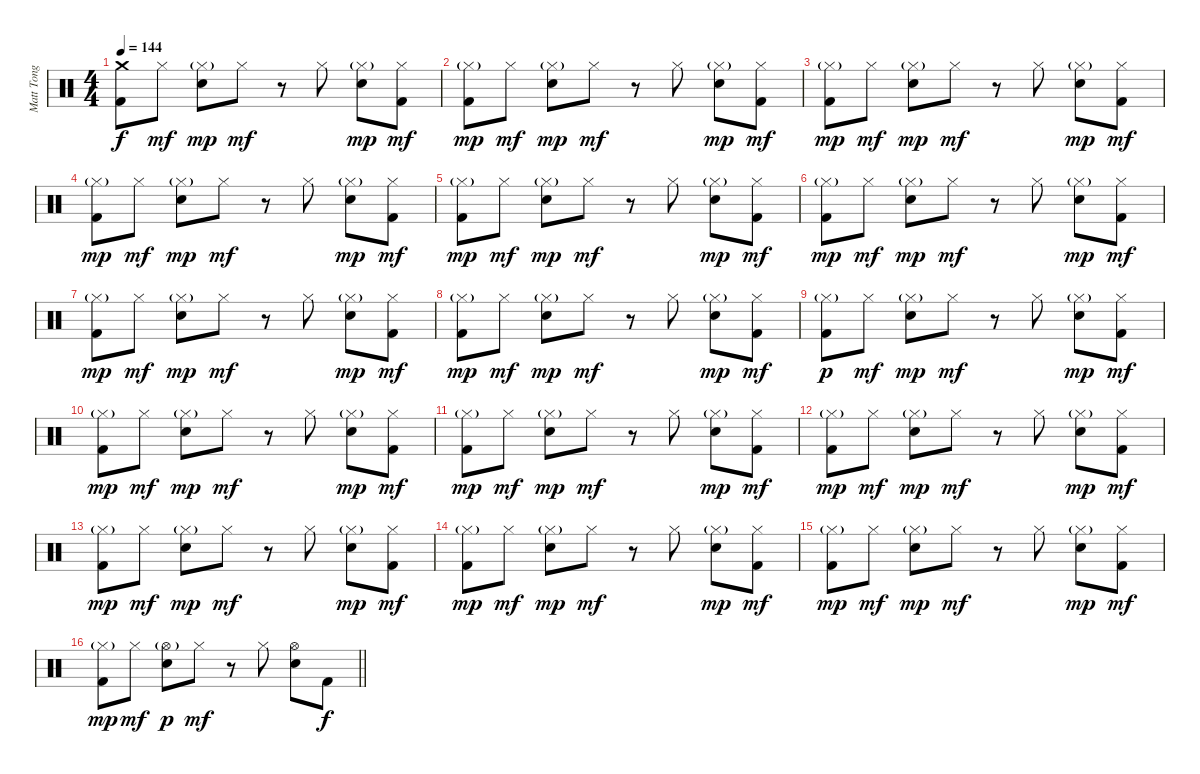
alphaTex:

\track ("Matt Tong" "Matt Tong") {instrument percussion}
\staff {score}
\articulation defaults
\ts (4 4)
\tempo 144
\clef neutral
\ks c
("Crash medium (hit)" "Kick (hit) 2").8{dy f} "Hi-Hat (closed)".8{dy mf} ("Hi-Hat (closed)"{g} "Electric Snare (hit)").8{dy mp} "Hi-Hat (closed)".8{dy mf} r.8 "Hi-Hat (closed)".8 ("Hi-Hat (closed)"{g} "Electric Snare (hit)").8{dy mp} ("Hi-Hat (closed)" "Kick (hit) 2").8{dy mf} |
("Hi-Hat (closed)"{g} "Kick (hit) 2").8{dy mp} "Hi-Hat (closed)".8{dy mf} ("Hi-Hat (closed)"{g} "Electric Snare (hit)").8{dy mp} "Hi-Hat (closed)".8{dy mf} r.8 "Hi-Hat (closed)".8 ("Hi-Hat (closed)"{g} "Electric Snare (hit)").8{dy mp} ("Hi-Hat (closed)" "Kick (hit) 2").8{dy mf} |
("Hi-Hat (closed)"{g} "Kick (hit) 2").8{dy mp} "Hi-Hat (closed)".8{dy mf} ("Hi-Hat (closed)"{g} "Electric Snare (hit)").8{dy mp} "Hi-Hat (closed)".8{dy mf} r.8 "Hi-Hat (closed)".8 ("Hi-Hat (closed)"{g} "Electric Snare (hit)").8{dy mp} ("Hi-Hat (closed)" "Kick (hit) 2").8{dy mf} |
("Hi-Hat (closed)"{g} "Kick (hit) 2").8{dy mp} "Hi-Hat (closed)".8{dy mf} ("Hi-Hat (closed)"{g} "Electric Snare (hit)").8{dy mp} "Hi-Hat (closed)".8{dy mf} r.8 "Hi-Hat (closed)".8 ("Hi-Hat (closed)"{g} "Electric Snare (hit)").8{dy mp} ("Hi-Hat (closed)" "Kick (hit) 2").8{dy mf} |
("Hi-Hat (closed)"{g} "Kick (hit) 2").8{dy mp} "Hi-Hat (closed)".8{dy mf} ("Hi-Hat (closed)"{g} "Electric Snare (hit)").8{dy mp} "Hi-Hat (closed)".8{dy mf} r.8 "Hi-Hat (closed)".8 ("Hi-Hat (closed)"{g} "Electric Snare (hit)").8{dy mp} ("Hi-Hat (closed)" "Kick (hit) 2").8{dy mf} |
("Hi-Hat (closed)"{g} "Kick (hit) 2").8{dy mp} "Hi-Hat (closed)".8{dy mf} ("Hi-Hat (closed)"{g} "Electric Snare (hit)").8{dy mp} "Hi-Hat (closed)".8{dy mf} r.8 "Hi-Hat (closed)".8 ("Hi-Hat (closed)"{g} "Electric Snare (hit)").8{dy mp} ("Hi-Hat (closed)" "Kick (hit) 2").8{dy mf} |
("Hi-Hat (closed)"{g} "Kick (hit) 2").8{dy mp} "Hi-Hat (closed)".8{dy mf} ("Hi-Hat (closed)"{g} "Electric Snare (hit)").8{dy mp} "Hi-Hat (closed)".8{dy mf} r.8 "Hi-Hat (closed)".8 ("Hi-Hat (closed)"{g} "Electric Snare (hit)").8{dy mp} ("Hi-Hat (closed)" "Kick (hit) 2").8{dy mf} |
("Hi-Hat (closed)"{g} "Kick (hit) 2").8{dy mp} "Hi-Hat (closed)".8{dy mf} ("Hi-Hat (closed)"{g} "Electric Snare (hit)").8{dy mp} "Hi-Hat (closed)".8{dy mf} r.8 "Hi-Hat (closed)".8 ("Hi-Hat (closed)"{g} "Electric Snare (hit)").8{dy mp} ("Hi-Hat (closed)" "Kick (hit) 2").8{dy mf} |
("Hi-Hat (closed)"{g} "Kick (hit) 2").8{dy p} "Hi-Hat (closed)".8{dy mf} ("Hi-Hat (closed)"{g} "Electric Snare (hit)").8{dy mp} "Hi-Hat (closed)".8{dy mf} r.8 "Hi-Hat (closed)".8 ("Hi-Hat (closed)"{g} "Electric Snare (hit)").8{dy mp} ("Hi-Hat (closed)" "Kick (hit) 2").8{dy mf} |
("Hi-Hat (closed)"{g} "Kick (hit) 2").8{dy mp} "Hi-Hat (closed)".8{dy mf} ("Hi-Hat (closed)"{g} "Electric Snare (hit)").8{dy mp} "Hi-Hat (closed)".8{dy mf} r.8 "Hi-Hat (closed)".8 ("Hi-Hat (closed)"{g} "Electric Snare (hit)").8{dy mp} ("Hi-Hat (closed)" "Kick (hit) 2").8{dy mf} |
("Hi-Hat (closed)"{g} "Kick (hit) 2").8{dy mp} "Hi-Hat (closed)".8{dy mf} ("Hi-Hat (closed)"{g} "Electric Snare (hit)").8{dy mp} "Hi-Hat (closed)".8{dy mf} r.8 "Hi-Hat (closed)".8 ("Hi-Hat (closed)"{g} "Electric Snare (hit)").8{dy mp} ("Hi-Hat (closed)" "Kick (hit) 2").8{dy mf} |
("Hi-Hat (closed)"{g} "Kick (hit) 2").8{dy mp} "Hi-Hat (closed)".8{dy mf} ("Hi-Hat (closed)"{g} "Electric Snare (hit)").8{dy mp} "Hi-Hat (closed)".8{dy mf} r.8 "Hi-Hat (closed)".8 ("Hi-Hat (closed)"{g} "Electric Snare (hit)").8{dy mp} ("Hi-Hat (closed)" "Kick (hit) 2").8{dy mf} |
("Hi-Hat (closed)"{g} "Kick (hit) 2").8{dy mp} "Hi-Hat (closed)".8{dy mf} ("Hi-Hat (closed)"{g} "Electric Snare (hit)").8{dy mp} "Hi-Hat (closed)".8{dy mf} r.8 "Hi-Hat (closed)".8 ("Hi-Hat (closed)"{g} "Electric Snare (hit)").8{dy mp} ("Hi-Hat (closed)" "Kick (hit) 2").8{dy mf} |
("Hi-Hat (closed)"{g} "Kick (hit) 2").8{dy mp} "Hi-Hat (closed)".8{dy mf} ("Hi-Hat (closed)"{g} "Electric Snare (hit)").8{dy mp} "Hi-Hat (closed)".8{dy mf} r.8 "Hi-Hat (closed)".8 ("Hi-Hat (closed)"{g} "Electric Snare (hit)").8{dy mp} ("Hi-Hat (closed)" "Kick (hit) 2").8{dy mf} |
("Hi-Hat (closed)"{g} "Kick (hit) 2").8{dy mp} "Hi-Hat (closed)".8{dy mf} ("Hi-Hat (closed)"{g} "Electric Snare (hit)").8{dy mp} "Hi-Hat (closed)".8{dy mf} r.8 "Hi-Hat (closed)".8 ("Hi-Hat (closed)"{g} "Electric Snare (hit)").8{dy mp} ("Hi-Hat (closed)" "Kick (hit) 2").8{dy mf} |
\barLineRight lightlight
("Hi-Hat (closed)"{g} "Kick (hit) 2").8{dy mp} "Hi-Hat (closed)".8{dy mf} ("Hi-Hat (open)"{g} "Electric Snare (hit)").8{dy p} "Hi-Hat (closed)".8{dy mf} r.8 "Hi-Hat (closed)".8 ("Hi-Hat (open)" "Electric Snare (hit)").8 "Kick (hit) 2".8{dy f}
